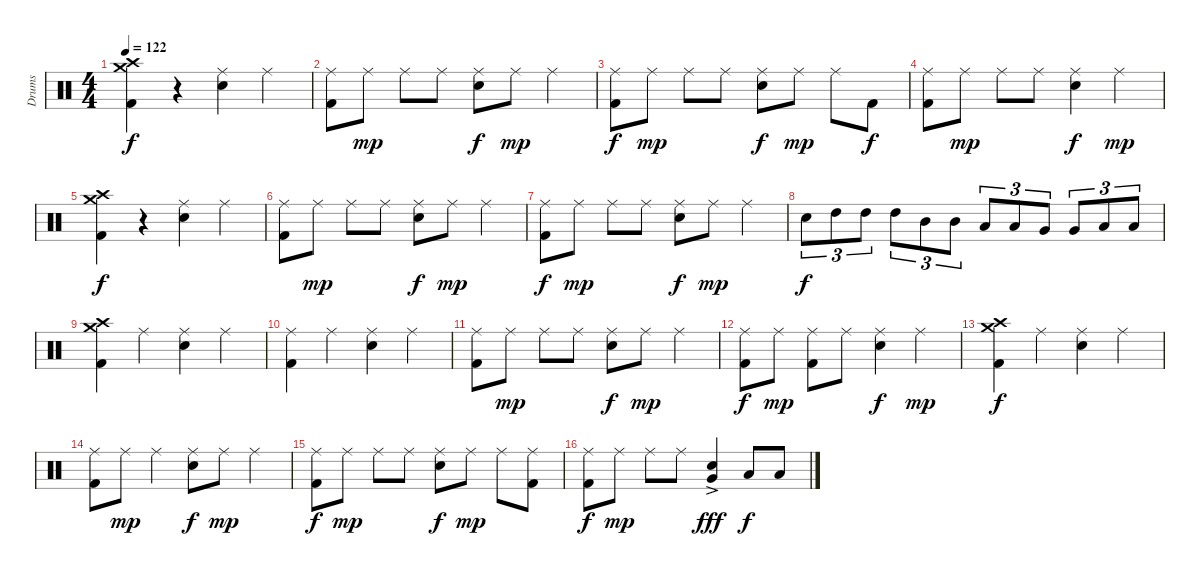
\track ("Drums" "Drums") {instrument percussion}
\staff {score}
\articulation defaults
\ts (4 4)
\tempo 122
\clef neutral
\ks c
("Crash high (hit)" "Crash medium (hit)" "Kick (hit) 2").4{dy f} r.4 ("Ride (middle)" "Snare (hit) 2").4 "Ride (middle)".4 |
("Ride (middle)" "Kick (hit) 2").8 "Ride (middle)".8{dy mp} "Ride (middle)".8 "Ride (middle)".8 ("Ride (middle)" "Snare (hit) 2").8{dy f} "Ride (middle)".8{dy mp} "Ride (middle)".4 |
("Ride (middle)" "Kick (hit) 2").8{dy f} "Ride (middle)".8{dy mp} "Ride (middle)".8 "Ride (middle)".8 ("Ride (middle)" "Snare (hit) 2").8{dy f} "Ride (middle)".8{dy mp} "Ride (middle)".8 "Kick (hit) 2".8{dy f} |
("Ride (middle)" "Kick (hit) 2").8 "Ride (middle)".8{dy mp} "Ride (middle)".8 "Ride (middle)".8 ("Ride (middle)" "Snare (hit) 2").4{dy f} "Ride (middle)".4{dy mp} |
("Crash high (hit)" "Crash medium (hit)" "Kick (hit) 2").4{dy f} r.4 ("Ride (middle)" "Snare (hit) 2").4 "Ride (middle)".4 |
("Ride (middle)" "Kick (hit) 2").8 "Ride (middle)".8{dy mp} "Ride (middle)".8 "Ride (middle)".8 ("Ride (middle)" "Snare (hit) 2").8{dy f} "Ride (middle)".8{dy mp} "Ride (middle)".4 |
("Ride (middle)" "Kick (hit) 2").8{dy f} "Ride (middle)".8{dy mp} "Ride (middle)".8 "Ride (middle)".8 ("Ride (middle)" "Snare (hit) 2").8{dy f} "Ride (middle)".8{dy mp} "Ride (middle)".4 |
"Snare (hit) 2".8{tu (3 2) dy f} "High Tom (hit)".8{tu (3 2)} "High Tom (hit)".8{tu (3 2)} "High Tom (hit)".8{tu (3 2)} "Mid Tom (hit)".8{tu (3 2)} "Mid Tom (hit)".8{tu (3 2)} "Low Tom (hit)".8{tu (3 2)} "Low Tom (hit)".8{tu (3 2)} "Very Low Tom (hit)".8{tu (3 2)} "Very Low Tom (hit)".8{tu (3 2)} "Low Floor Tom (hit)".8{tu (3 2)} "Low Floor Tom (hit)".8{tu (3 2)} |
("Crash high (hit)" "Crash medium (hit)" "Kick (hit) 2").4 "Ride (middle)".4 ("Ride (middle)" "Snare (hit) 2").4 "Ride (middle)".4 |
("Ride (middle)" "Kick (hit) 2").4 "Ride (middle)".4 ("Ride (middle)" "Snare (hit) 2").4 "Ride (middle)".4 |
("Ride (middle)" "Kick (hit) 2").8 "Ride (middle)".8{dy mp} "Ride (middle)".8 "Ride (middle)".8 ("Ride (middle)" "Snare (hit) 2").8{dy f} "Ride (middle)".8{dy mp} "Ride (middle)".4 |
("Ride (middle)" "Kick (hit) 2").8{dy f} "Ride (middle)".8{dy mp} ("Ride (middle)" "Kick (hit) 2").8 "Ride (middle)".8 ("Ride (middle)" "Snare (hit) 2").4{dy f} "Ride (middle)".4{dy mp} |
("Crash high (hit)" "Crash medium (hit)" "Kick (hit) 2").4{dy f} "Ride (middle)".4 ("Ride (middle)" "Snare (hit) 2").4 "Ride (middle)".4 |
("Ride (middle)" "Kick (hit) 2").8 "Ride (middle)".8{dy mp} "Ride (middle)".4 ("Ride (middle)" "Snare (hit) 2").8{dy f} "Ride (middle)".8{dy mp} "Ride (middle)".4 |
("Ride (middle)" "Kick (hit) 2").8{dy f} "Ride (middle)".8{dy mp} "Ride (middle)".8 "Ride (middle)".8 ("Ride (middle)" "Snare (hit) 2").8{dy f} "Ride (middle)".8{dy mp} "Ride (middle)".8 ("Ride (middle)" "Kick (hit) 2").8 |
("Ride (middle)" "Kick (hit) 2").8{dy f} "Ride (middle)".8{dy mp} "Ride (middle)".8 "Ride (middle)".8 ("Snare (hit) 2" "Very Low Tom (hit)"{ac}).4{dy fff} "Low Tom (hit)".8{dy f} "Low Tom (hit)".8
